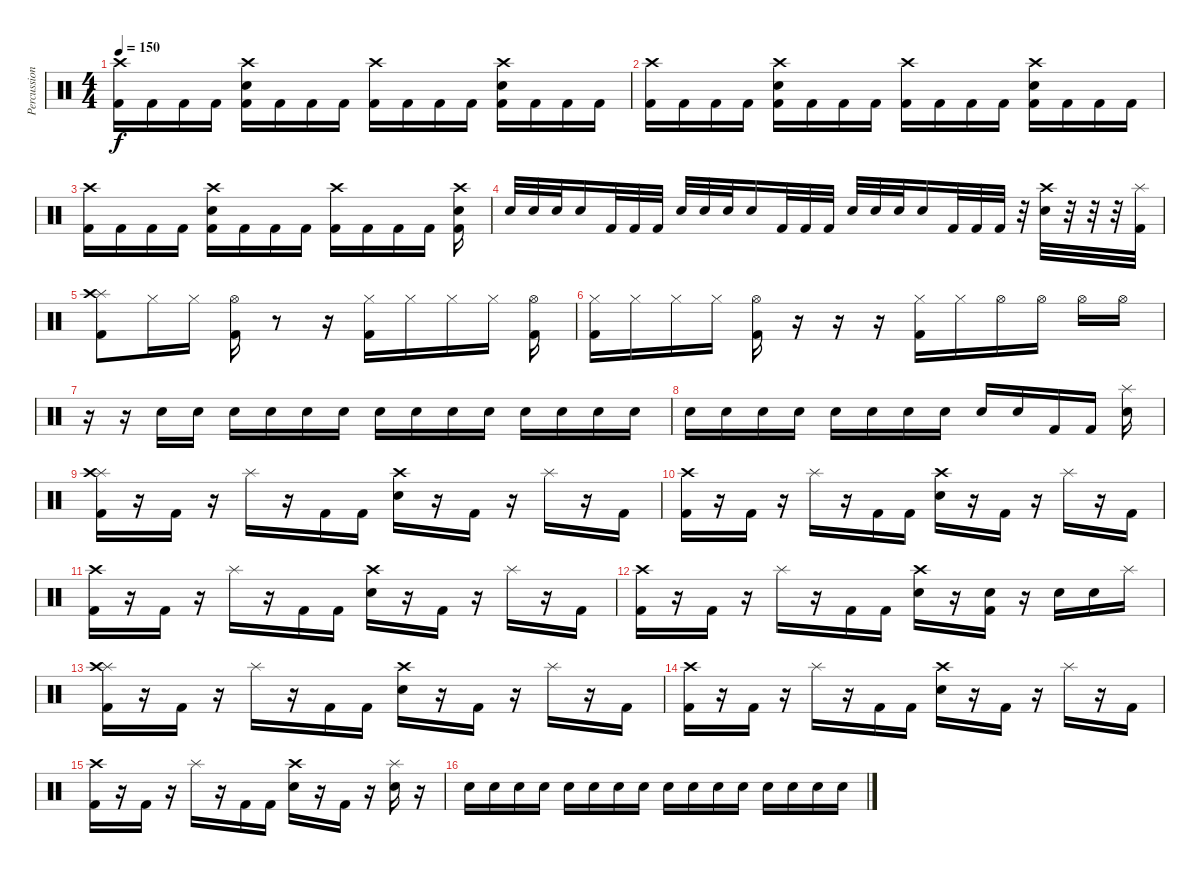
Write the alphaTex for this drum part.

\track ("Percussion" "Percussion") {instrument percussion}
\staff {score}
\articulation defaults
\ts (4 4)
\tempo 150
\clef neutral
\ks c
("Crash high (hit)" "Kick (hit) 2").16{dy f} "Kick (hit) 2".16 "Kick (hit) 2".16 "Kick (hit) 2".16 ("Crash high (hit)" "Snare (hit) 2" "Kick (hit) 2").16 "Kick (hit) 2".16 "Kick (hit) 2".16 "Kick (hit) 2".16 ("Crash high (hit)" "Kick (hit) 2").16 "Kick (hit) 2".16 "Kick (hit) 2".16 "Kick (hit) 2".16 ("Crash high (hit)" "Snare (hit) 2" "Kick (hit) 2").16 "Kick (hit) 2".16 "Kick (hit) 2".16 "Kick (hit) 2".16 |
("Crash high (hit)" "Kick (hit) 2").16 "Kick (hit) 2".16 "Kick (hit) 2".16 "Kick (hit) 2".16 ("Crash high (hit)" "Snare (hit) 2" "Kick (hit) 2").16 "Kick (hit) 2".16 "Kick (hit) 2".16 "Kick (hit) 2".16 ("Crash high (hit)" "Kick (hit) 2").16 "Kick (hit) 2".16 "Kick (hit) 2".16 "Kick (hit) 2".16 ("Crash high (hit)" "Snare (hit) 2" "Kick (hit) 2").16 "Kick (hit) 2".16 "Kick (hit) 2".16 "Kick (hit) 2".16 |
("Crash high (hit)" "Kick (hit) 2").16 "Kick (hit) 2".16 "Kick (hit) 2".16 "Kick (hit) 2".16 ("Crash high (hit)" "Snare (hit) 2" "Kick (hit) 2").16 "Kick (hit) 2".16 "Kick (hit) 2".16 "Kick (hit) 2".16 ("Crash high (hit)" "Kick (hit) 2").16 "Kick (hit) 2".16 "Kick (hit) 2".16 "Kick (hit) 2".16 ("Crash high (hit)" "Snare (hit) 2" "Kick (hit) 2").16 |
"Snare (hit) 2".32 "Snare (hit) 2".32 "Snare (hit) 2".32 "Snare (hit) 2".16 "Kick (hit) 2".32 "Kick (hit) 2".32 "Kick (hit) 2".32 "Snare (hit) 2".32 "Snare (hit) 2".32 "Snare (hit) 2".32 "Snare (hit) 2".16 "Kick (hit) 2".32 "Kick (hit) 2".32 "Kick (hit) 2".32 "Snare (hit) 2".32 "Snare (hit) 2".32 "Snare (hit) 2".32 "Snare (hit) 2".16 "Kick (hit) 2".32 "Kick (hit) 2".32 "Kick (hit) 2".32 r.32 ("Crash high (hit)" "Snare (hit) 2").32 r.32 r.32 r.32 ("Splash (hit)" "Kick (hit) 2").32 |
("Splash (hit)" "Crash high (hit)" "Kick (hit) 2").8 "Hi-Hat (closed)".16 "Hi-Hat (closed)".16 ("Hi-Hat (open)" "Kick (hit) 2").16 r.8 r.16 ("Hi-Hat (closed)" "Kick (hit) 2").16 "Hi-Hat (closed)".16 "Hi-Hat (closed)".16 "Hi-Hat (closed)".16 ("Hi-Hat (open)" "Kick (hit) 2").16 |
("Hi-Hat (closed)" "Kick (hit) 2").16 "Hi-Hat (closed)".16 "Hi-Hat (closed)".16 "Hi-Hat (closed)".16 ("Hi-Hat (open)" "Kick (hit) 2").16 r.16 r.16 r.16 ("Hi-Hat (closed)" "Kick (hit) 2").16 "Hi-Hat (closed)".16 "Hi-Hat (open)".16 "Hi-Hat (open)".16 "Hi-Hat (open)".16 "Hi-Hat (open)".16 |
r.16 r.16 "Snare (hit) 2".16 "Snare (hit) 2".16 "Snare (hit) 2".16 "Snare (hit) 2".16 "Snare (hit) 2".16 "Snare (hit) 2".16 "Snare (hit) 2".16 "Snare (hit) 2".16 "Snare (hit) 2".16 "Snare (hit) 2".16 "Snare (hit) 2".16 "Snare (hit) 2".16 "Snare (hit) 2".16 "Snare (hit) 2".16 |
"Snare (hit) 2".16 "Snare (hit) 2".16 "Snare (hit) 2".16 "Snare (hit) 2".16 "Snare (hit) 2".16 "Snare (hit) 2".16 "Snare (hit) 2".16 "Snare (hit) 2".16 "Snare (hit) 2".16 "Snare (hit) 2".16 "Kick (hit) 2".16 "Kick (hit) 2".16 ("Splash (hit)" "Snare (hit) 2").16 |
("Splash (hit)" "Crash high (hit)" "Kick (hit) 2").16 r.16 "Kick (hit) 2".16 r.16 "Splash (hit)".16 r.16 "Kick (hit) 2".16 "Kick (hit) 2".16 ("Crash high (hit)" "Snare (hit) 2").16 r.16 "Kick (hit) 2".16 r.16 "Splash (hit)".16 r.16 "Kick (hit) 2".16 |
("Crash high (hit)" "Kick (hit) 2").16 r.16 "Kick (hit) 2".16 r.16 "Splash (hit)".16 r.16 "Kick (hit) 2".16 "Kick (hit) 2".16 ("Crash high (hit)" "Snare (hit) 2").16 r.16 "Kick (hit) 2".16 r.16 "Splash (hit)".16 r.16 "Kick (hit) 2".16 |
("Crash high (hit)" "Kick (hit) 2").16 r.16 "Kick (hit) 2".16 r.16 "Splash (hit)".16 r.16 "Kick (hit) 2".16 "Kick (hit) 2".16 ("Crash high (hit)" "Snare (hit) 2").16 r.16 "Kick (hit) 2".16 r.16 "Splash (hit)".16 r.16 "Kick (hit) 2".16 |
("Crash high (hit)" "Kick (hit) 2").16 r.16 "Kick (hit) 2".16 r.16 "Splash (hit)".16 r.16 "Kick (hit) 2".16 "Kick (hit) 2".16 ("Crash high (hit)" "Snare (hit) 2").16 r.16 ("Snare (hit) 2" "Kick (hit) 2").16 r.16 "Snare (hit) 2".16 "Snare (hit) 2".16 "Splash (hit)".16 |
("Splash (hit)" "Crash high (hit)" "Kick (hit) 2").16 r.16 "Kick (hit) 2".16 r.16 "Splash (hit)".16 r.16 "Kick (hit) 2".16 "Kick (hit) 2".16 ("Crash high (hit)" "Snare (hit) 2").16 r.16 "Kick (hit) 2".16 r.16 "Splash (hit)".16 r.16 "Kick (hit) 2".16 |
("Crash high (hit)" "Kick (hit) 2").16 r.16 "Kick (hit) 2".16 r.16 "Splash (hit)".16 r.16 "Kick (hit) 2".16 "Kick (hit) 2".16 ("Crash high (hit)" "Snare (hit) 2").16 r.16 "Kick (hit) 2".16 r.16 "Splash (hit)".16 r.16 "Kick (hit) 2".16 |
("Crash high (hit)" "Kick (hit) 2").16 r.16 "Kick (hit) 2".16 r.16 "Splash (hit)".16 r.16 "Kick (hit) 2".16 "Kick (hit) 2".16 ("Crash high (hit)" "Snare (hit) 2").16 r.16 "Kick (hit) 2".16 r.16 ("Splash (hit)" "Snare (hit) 2").16 r.16 |
"Snare (hit) 2".16 "Snare (hit) 2".16 "Snare (hit) 2".16 "Snare (hit) 2".16 "Snare (hit) 2".16 "Snare (hit) 2".16 "Snare (hit) 2".16 "Snare (hit) 2".16 "Snare (hit) 2".16 "Snare (hit) 2".16 "Snare (hit) 2".16 "Snare (hit) 2".16 "Snare (hit) 2".16 "Snare (hit) 2".16 "Snare (hit) 2".16 "Snare (hit) 2".16
